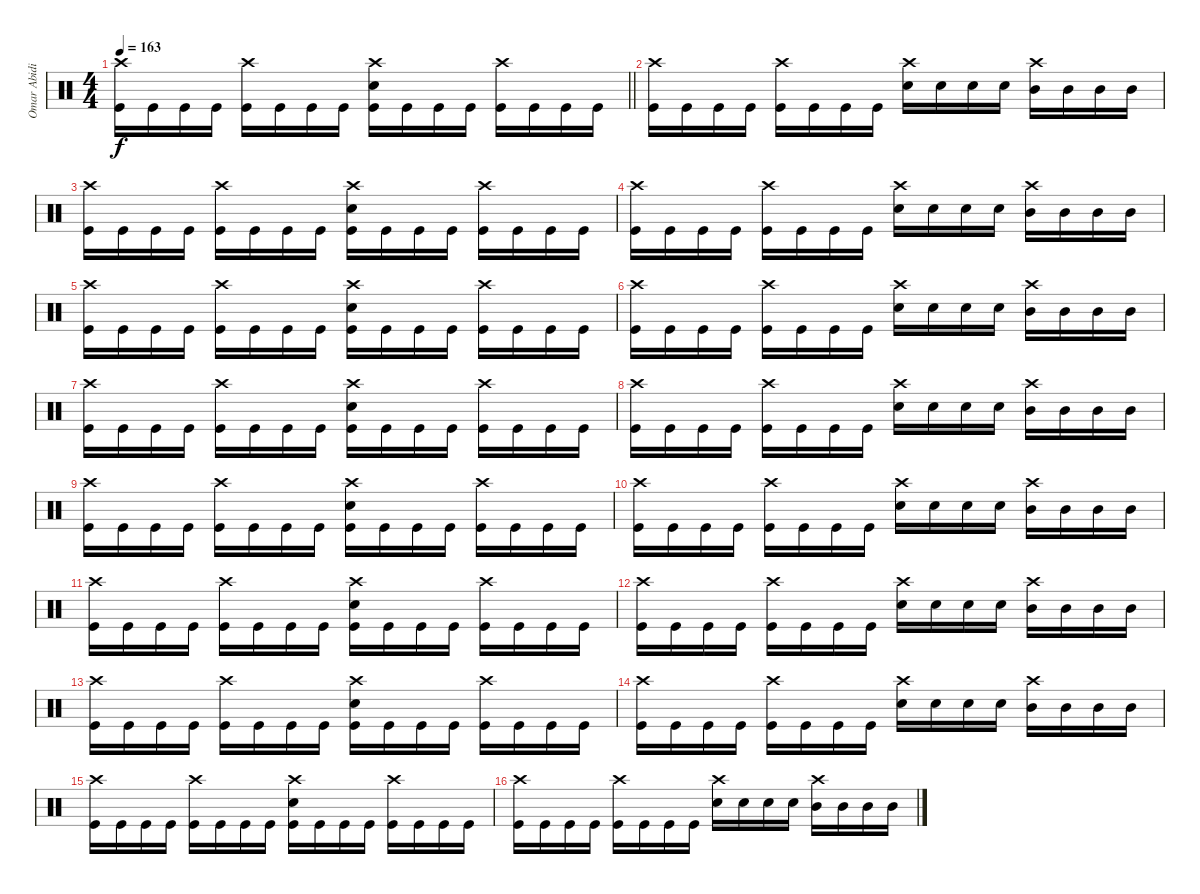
\track ("Omar Abidi" "Omar Abidi") {instrument percussion}
\staff {score}
\articulation defaults
\ts (4 4)
\tempo 163
\clef neutral
\barLineRight lightlight
\ks c
("Crash high (hit)" "Kick (hit)").16{dy f} "Kick (hit)".16 "Kick (hit)".16 "Kick (hit)".16 ("Crash high (hit)" "Kick (hit)").16 "Kick (hit)".16 "Kick (hit)".16 "Kick (hit)".16 ("Crash high (hit)" "Snare (hit) 2" "Kick (hit)").16 "Kick (hit)".16 "Kick (hit)".16 "Kick (hit)".16 ("Crash high (hit)" "Kick (hit)").16 "Kick (hit)".16 "Kick (hit)".16 "Kick (hit)".16 |
("Crash high (hit)" "Kick (hit)").16 "Kick (hit)".16 "Kick (hit)".16 "Kick (hit)".16 ("Crash high (hit)" "Kick (hit)").16 "Kick (hit)".16 "Kick (hit)".16 "Kick (hit)".16 ("Crash high (hit)" "Snare (hit) 2").16 "Snare (hit) 2".16 "Snare (hit) 2".16 "Snare (hit) 2".16 ("Crash high (hit)" "Mid Tom (hit)").16 "Mid Tom (hit)".16 "Mid Tom (hit)".16 "Mid Tom (hit)".16 |
("Crash high (hit)" "Kick (hit)").16 "Kick (hit)".16 "Kick (hit)".16 "Kick (hit)".16 ("Crash high (hit)" "Kick (hit)").16 "Kick (hit)".16 "Kick (hit)".16 "Kick (hit)".16 ("Crash high (hit)" "Snare (hit) 2" "Kick (hit)").16 "Kick (hit)".16 "Kick (hit)".16 "Kick (hit)".16 ("Crash high (hit)" "Kick (hit)").16 "Kick (hit)".16 "Kick (hit)".16 "Kick (hit)".16 |
("Crash high (hit)" "Kick (hit)").16 "Kick (hit)".16 "Kick (hit)".16 "Kick (hit)".16 ("Crash high (hit)" "Kick (hit)").16 "Kick (hit)".16 "Kick (hit)".16 "Kick (hit)".16 ("Crash high (hit)" "Snare (hit) 2").16 "Snare (hit) 2".16 "Snare (hit) 2".16 "Snare (hit) 2".16 ("Crash high (hit)" "Mid Tom (hit)").16 "Mid Tom (hit)".16 "Mid Tom (hit)".16 "Mid Tom (hit)".16 |
("Crash high (hit)" "Kick (hit)").16 "Kick (hit)".16 "Kick (hit)".16 "Kick (hit)".16 ("Crash high (hit)" "Kick (hit)").16 "Kick (hit)".16 "Kick (hit)".16 "Kick (hit)".16 ("Crash high (hit)" "Snare (hit) 2" "Kick (hit)").16 "Kick (hit)".16 "Kick (hit)".16 "Kick (hit)".16 ("Crash high (hit)" "Kick (hit)").16 "Kick (hit)".16 "Kick (hit)".16 "Kick (hit)".16 |
("Crash high (hit)" "Kick (hit)").16 "Kick (hit)".16 "Kick (hit)".16 "Kick (hit)".16 ("Crash high (hit)" "Kick (hit)").16 "Kick (hit)".16 "Kick (hit)".16 "Kick (hit)".16 ("Crash high (hit)" "Snare (hit) 2").16 "Snare (hit) 2".16 "Snare (hit) 2".16 "Snare (hit) 2".16 ("Crash high (hit)" "Mid Tom (hit)").16 "Mid Tom (hit)".16 "Mid Tom (hit)".16 "Mid Tom (hit)".16 |
("Crash high (hit)" "Kick (hit)").16 "Kick (hit)".16 "Kick (hit)".16 "Kick (hit)".16 ("Crash high (hit)" "Kick (hit)").16 "Kick (hit)".16 "Kick (hit)".16 "Kick (hit)".16 ("Crash high (hit)" "Snare (hit) 2" "Kick (hit)").16 "Kick (hit)".16 "Kick (hit)".16 "Kick (hit)".16 ("Crash high (hit)" "Kick (hit)").16 "Kick (hit)".16 "Kick (hit)".16 "Kick (hit)".16 |
("Crash high (hit)" "Kick (hit)").16 "Kick (hit)".16 "Kick (hit)".16 "Kick (hit)".16 ("Crash high (hit)" "Kick (hit)").16 "Kick (hit)".16 "Kick (hit)".16 "Kick (hit)".16 ("Crash high (hit)" "Snare (hit) 2").16 "Snare (hit) 2".16 "Snare (hit) 2".16 "Snare (hit) 2".16 ("Crash high (hit)" "Mid Tom (hit)").16 "Mid Tom (hit)".16 "Mid Tom (hit)".16 "Mid Tom (hit)".16 |
("Crash high (hit)" "Kick (hit)").16 "Kick (hit)".16 "Kick (hit)".16 "Kick (hit)".16 ("Crash high (hit)" "Kick (hit)").16 "Kick (hit)".16 "Kick (hit)".16 "Kick (hit)".16 ("Crash high (hit)" "Snare (hit) 2" "Kick (hit)").16 "Kick (hit)".16 "Kick (hit)".16 "Kick (hit)".16 ("Crash high (hit)" "Kick (hit)").16 "Kick (hit)".16 "Kick (hit)".16 "Kick (hit)".16 |
("Crash high (hit)" "Kick (hit)").16 "Kick (hit)".16 "Kick (hit)".16 "Kick (hit)".16 ("Crash high (hit)" "Kick (hit)").16 "Kick (hit)".16 "Kick (hit)".16 "Kick (hit)".16 ("Crash high (hit)" "Snare (hit) 2").16 "Snare (hit) 2".16 "Snare (hit) 2".16 "Snare (hit) 2".16 ("Crash high (hit)" "Mid Tom (hit)").16 "Mid Tom (hit)".16 "Mid Tom (hit)".16 "Mid Tom (hit)".16 |
("Crash high (hit)" "Kick (hit)").16 "Kick (hit)".16 "Kick (hit)".16 "Kick (hit)".16 ("Crash high (hit)" "Kick (hit)").16 "Kick (hit)".16 "Kick (hit)".16 "Kick (hit)".16 ("Crash high (hit)" "Snare (hit) 2" "Kick (hit)").16 "Kick (hit)".16 "Kick (hit)".16 "Kick (hit)".16 ("Crash high (hit)" "Kick (hit)").16 "Kick (hit)".16 "Kick (hit)".16 "Kick (hit)".16 |
("Crash high (hit)" "Kick (hit)").16 "Kick (hit)".16 "Kick (hit)".16 "Kick (hit)".16 ("Crash high (hit)" "Kick (hit)").16 "Kick (hit)".16 "Kick (hit)".16 "Kick (hit)".16 ("Crash high (hit)" "Snare (hit) 2").16 "Snare (hit) 2".16 "Snare (hit) 2".16 "Snare (hit) 2".16 ("Crash high (hit)" "Mid Tom (hit)").16 "Mid Tom (hit)".16 "Mid Tom (hit)".16 "Mid Tom (hit)".16 |
("Crash high (hit)" "Kick (hit)").16 "Kick (hit)".16 "Kick (hit)".16 "Kick (hit)".16 ("Crash high (hit)" "Kick (hit)").16 "Kick (hit)".16 "Kick (hit)".16 "Kick (hit)".16 ("Crash high (hit)" "Snare (hit) 2" "Kick (hit)").16 "Kick (hit)".16 "Kick (hit)".16 "Kick (hit)".16 ("Crash high (hit)" "Kick (hit)").16 "Kick (hit)".16 "Kick (hit)".16 "Kick (hit)".16 |
("Crash high (hit)" "Kick (hit)").16 "Kick (hit)".16 "Kick (hit)".16 "Kick (hit)".16 ("Crash high (hit)" "Kick (hit)").16 "Kick (hit)".16 "Kick (hit)".16 "Kick (hit)".16 ("Crash high (hit)" "Snare (hit) 2").16 "Snare (hit) 2".16 "Snare (hit) 2".16 "Snare (hit) 2".16 ("Crash high (hit)" "Mid Tom (hit)").16 "Mid Tom (hit)".16 "Mid Tom (hit)".16 "Mid Tom (hit)".16 |
("Crash high (hit)" "Kick (hit)").16 "Kick (hit)".16 "Kick (hit)".16 "Kick (hit)".16 ("Crash high (hit)" "Kick (hit)").16 "Kick (hit)".16 "Kick (hit)".16 "Kick (hit)".16 ("Crash high (hit)" "Snare (hit) 2" "Kick (hit)").16 "Kick (hit)".16 "Kick (hit)".16 "Kick (hit)".16 ("Crash high (hit)" "Kick (hit)").16 "Kick (hit)".16 "Kick (hit)".16 "Kick (hit)".16 |
("Crash high (hit)" "Kick (hit)").16 "Kick (hit)".16 "Kick (hit)".16 "Kick (hit)".16 ("Crash high (hit)" "Kick (hit)").16 "Kick (hit)".16 "Kick (hit)".16 "Kick (hit)".16 ("Crash high (hit)" "Snare (hit) 2").16 "Snare (hit) 2".16 "Snare (hit) 2".16 "Snare (hit) 2".16 ("Crash high (hit)" "Mid Tom (hit)").16 "Mid Tom (hit)".16 "Mid Tom (hit)".16 "Mid Tom (hit)".16
